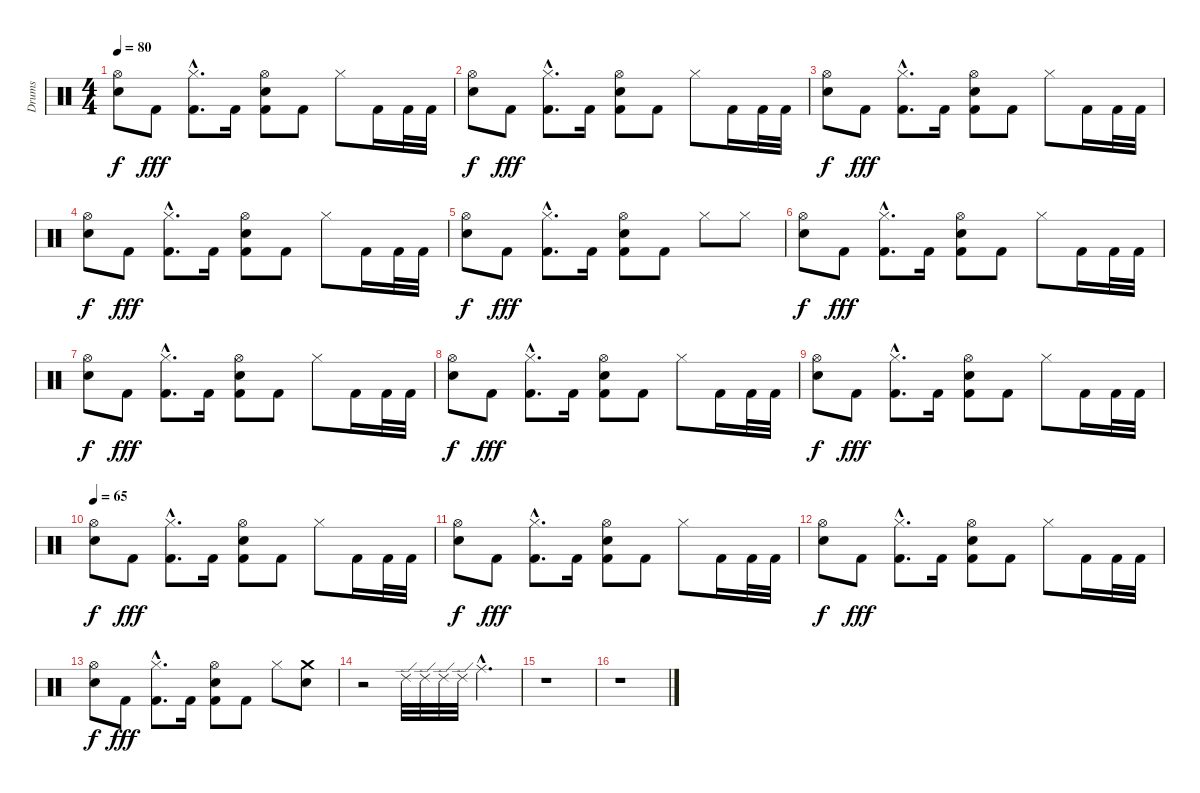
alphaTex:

\track ("Drums" "Drums") {instrument percussion}
\staff {score}
\articulation defaults
\ts (4 4)
\tempo 80
\clef neutral
\ks c
("Hi-Hat (open)" "Electric Snare (hit)").8{dy f} "Kick (hit) 2".8{dy fff} ("Hi-Hat (closed)"{hac} "Kick (hit) 2"{hac}).8{d} "Kick (hit) 2".16 ("Hi-Hat (open)" "Kick (hit) 2" "Snare (hit) 2").8 "Kick (hit) 2".8 "Hi-Hat (closed)".8 "Kick (hit) 2".16 "Kick (hit) 2".32 "Kick (hit) 2".32 |
("Hi-Hat (open)" "Electric Snare (hit)").8{dy f} "Kick (hit) 2".8{dy fff} ("Hi-Hat (closed)"{hac} "Kick (hit) 2"{hac}).8{d} "Kick (hit) 2".16 ("Hi-Hat (open)" "Kick (hit) 2" "Snare (hit) 2").8 "Kick (hit) 2".8 "Hi-Hat (closed)".8 "Kick (hit) 2".16 "Kick (hit) 2".32 "Kick (hit) 2".32 |
("Hi-Hat (open)" "Electric Snare (hit)").8{dy f} "Kick (hit) 2".8{dy fff} ("Hi-Hat (closed)"{hac} "Kick (hit) 2"{hac}).8{d} "Kick (hit) 2".16 ("Hi-Hat (open)" "Kick (hit) 2" "Snare (hit) 2").8 "Kick (hit) 2".8 "Hi-Hat (closed)".8 "Kick (hit) 2".16 "Kick (hit) 2".32 "Kick (hit) 2".32 |
("Hi-Hat (open)" "Electric Snare (hit)").8{dy f} "Kick (hit) 2".8{dy fff} ("Hi-Hat (closed)"{hac} "Kick (hit) 2"{hac}).8{d} "Kick (hit) 2".16 ("Hi-Hat (open)" "Kick (hit) 2" "Snare (hit) 2").8 "Kick (hit) 2".8 "Hi-Hat (closed)".8 "Kick (hit) 2".16 "Kick (hit) 2".32 "Kick (hit) 2".32 |
("Hi-Hat (open)" "Electric Snare (hit)").8{dy f} "Kick (hit) 2".8{dy fff} ("Hi-Hat (closed)"{hac} "Kick (hit) 2"{hac}).8{d} "Kick (hit) 2".16 ("Hi-Hat (open)" "Kick (hit) 2" "Snare (hit) 2").8 "Kick (hit) 2".8 "Hi-Hat (closed)".8 "Hi-Hat (closed)".8 |
("Hi-Hat (open)" "Electric Snare (hit)").8{dy f} "Kick (hit) 2".8{dy fff} ("Hi-Hat (closed)"{hac} "Kick (hit) 2"{hac}).8{d} "Kick (hit) 2".16 ("Hi-Hat (open)" "Kick (hit) 2" "Snare (hit) 2").8 "Kick (hit) 2".8 "Hi-Hat (closed)".8 "Kick (hit) 2".16 "Kick (hit) 2".32 "Kick (hit) 2".32 |
("Hi-Hat (open)" "Electric Snare (hit)").8{dy f} "Kick (hit) 2".8{dy fff} ("Hi-Hat (closed)"{hac} "Kick (hit) 2"{hac}).8{d} "Kick (hit) 2".16 ("Hi-Hat (open)" "Kick (hit) 2" "Snare (hit) 2").8 "Kick (hit) 2".8 "Hi-Hat (closed)".8 "Kick (hit) 2".16 "Kick (hit) 2".32 "Kick (hit) 2".32 |
("Hi-Hat (open)" "Electric Snare (hit)").8{dy f} "Kick (hit) 2".8{dy fff} ("Hi-Hat (closed)"{hac} "Kick (hit) 2"{hac}).8{d} "Kick (hit) 2".16 ("Hi-Hat (open)" "Kick (hit) 2" "Snare (hit) 2").8 "Kick (hit) 2".8 "Hi-Hat (closed)".8 "Kick (hit) 2".16 "Kick (hit) 2".32 "Kick (hit) 2".32 |
("Hi-Hat (open)" "Electric Snare (hit)").8{dy f} "Kick (hit) 2".8{dy fff} ("Hi-Hat (closed)"{hac} "Kick (hit) 2"{hac}).8{d} "Kick (hit) 2".16 ("Hi-Hat (open)" "Kick (hit) 2" "Snare (hit) 2").8 "Kick (hit) 2".8 "Hi-Hat (closed)".8 "Kick (hit) 2".16 "Kick (hit) 2".32 "Kick (hit) 2".32 |
\tempo 65
("Hi-Hat (open)" "Electric Snare (hit)").8{dy f} "Kick (hit) 2".8{dy fff} ("Hi-Hat (closed)"{hac} "Kick (hit) 2"{hac}).8{d} "Kick (hit) 2".16 ("Hi-Hat (open)" "Kick (hit) 2" "Snare (hit) 2").8 "Kick (hit) 2".8 "Hi-Hat (closed)".8 "Kick (hit) 2".16 "Kick (hit) 2".32 "Kick (hit) 2".32 |
("Hi-Hat (open)" "Electric Snare (hit)").8{dy f} "Kick (hit) 2".8{dy fff} ("Hi-Hat (closed)"{hac} "Kick (hit) 2"{hac}).8{d} "Kick (hit) 2".16 ("Hi-Hat (open)" "Kick (hit) 2" "Snare (hit) 2").8 "Kick (hit) 2".8 "Hi-Hat (closed)".8 "Kick (hit) 2".16 "Kick (hit) 2".32 "Kick (hit) 2".32 |
("Hi-Hat (open)" "Electric Snare (hit)").8{dy f} "Kick (hit) 2".8{dy fff} ("Hi-Hat (closed)"{hac} "Kick (hit) 2"{hac}).8{d} "Kick (hit) 2".16 ("Hi-Hat (open)" "Kick (hit) 2" "Snare (hit) 2").8 "Kick (hit) 2".8 "Hi-Hat (closed)".8 "Kick (hit) 2".16 "Kick (hit) 2".32 "Kick (hit) 2".32 |
("Hi-Hat (open)" "Electric Snare (hit)").8{dy f} "Kick (hit) 2".8{dy fff} ("Hi-Hat (closed)"{hac} "Kick (hit) 2"{hac}).8{d} "Kick (hit) 2".16 ("Hi-Hat (open)" "Kick (hit) 2" "Snare (hit) 2").8 "Kick (hit) 2".8 "Hi-Hat (closed)".8 ("Electric Snare (hit)" "Crash medium (hit)").8 |
r.2 "Ride (edge) 2".32 "Ride (edge) 2".32 "Ride (edge) 2".32 "Ride (edge) 2".32 "Ride (middle)"{hac}.4{d} |
r.1 |
r.1
